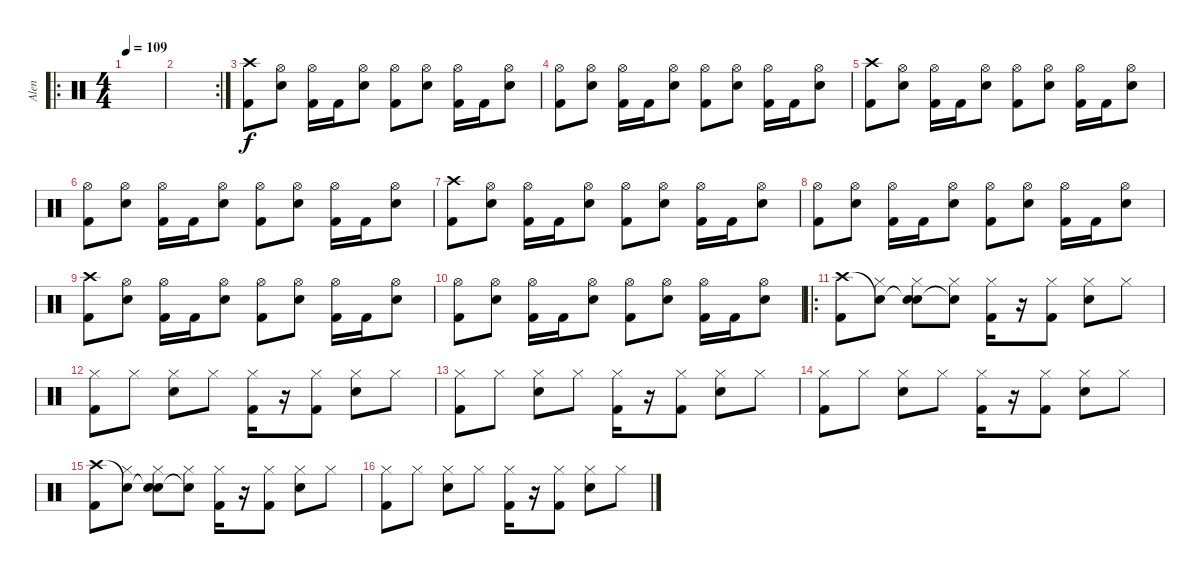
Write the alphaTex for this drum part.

\track ("Alen" "Alen") {instrument percussion}
\staff {score}
\articulation defaults
\ro
\ts (4 4)
\tempo 109
\clef neutral
\ks c
|
\rc 2
|
("Crash high (hit)" "Kick (hit) 2").8 ("Hi-Hat (open)" "Electric Snare (hit)").8 ("Hi-Hat (open)" "Kick (hit) 2").16 "Kick (hit) 2".16 ("Hi-Hat (open)" "Electric Snare (hit)").8 ("Hi-Hat (open)" "Kick (hit) 2").8 ("Hi-Hat (open)" "Electric Snare (hit)").8 ("Hi-Hat (open)" "Kick (hit) 2").16 "Kick (hit) 2".16 ("Hi-Hat (open)" "Electric Snare (hit)").8 |
("Hi-Hat (open)" "Kick (hit) 2").8 ("Hi-Hat (open)" "Electric Snare (hit)").8 ("Hi-Hat (open)" "Kick (hit) 2").16 "Kick (hit) 2".16 ("Hi-Hat (open)" "Electric Snare (hit)").8 ("Hi-Hat (open)" "Kick (hit) 2").8 ("Hi-Hat (open)" "Electric Snare (hit)").8 ("Hi-Hat (open)" "Kick (hit) 2").16 "Kick (hit) 2".16 ("Hi-Hat (open)" "Electric Snare (hit)").8 |
("Crash high (hit)" "Kick (hit) 2").8 ("Hi-Hat (open)" "Electric Snare (hit)").8 ("Hi-Hat (open)" "Kick (hit) 2").16 "Kick (hit) 2".16 ("Hi-Hat (open)" "Electric Snare (hit)").8 ("Hi-Hat (open)" "Kick (hit) 2").8 ("Hi-Hat (open)" "Electric Snare (hit)").8 ("Hi-Hat (open)" "Kick (hit) 2").16 "Kick (hit) 2".16 ("Hi-Hat (open)" "Electric Snare (hit)").8 |
("Hi-Hat (open)" "Kick (hit) 2").8 ("Hi-Hat (open)" "Electric Snare (hit)").8 ("Hi-Hat (open)" "Kick (hit) 2").16 "Kick (hit) 2".16 ("Hi-Hat (open)" "Electric Snare (hit)").8 ("Hi-Hat (open)" "Kick (hit) 2").8 ("Hi-Hat (open)" "Electric Snare (hit)").8 ("Hi-Hat (open)" "Kick (hit) 2").16 "Kick (hit) 2".16 ("Hi-Hat (open)" "Electric Snare (hit)").8 |
("Crash high (hit)" "Kick (hit) 2").8 ("Hi-Hat (open)" "Electric Snare (hit)").8 ("Hi-Hat (open)" "Kick (hit) 2").16 "Kick (hit) 2".16 ("Hi-Hat (open)" "Electric Snare (hit)").8 ("Hi-Hat (open)" "Kick (hit) 2").8 ("Hi-Hat (open)" "Electric Snare (hit)").8 ("Hi-Hat (open)" "Kick (hit) 2").16 "Kick (hit) 2".16 ("Hi-Hat (open)" "Electric Snare (hit)").8 |
("Hi-Hat (open)" "Kick (hit) 2").8 ("Hi-Hat (open)" "Electric Snare (hit)").8 ("Hi-Hat (open)" "Kick (hit) 2").16 "Kick (hit) 2".16 ("Hi-Hat (open)" "Electric Snare (hit)").8 ("Hi-Hat (open)" "Kick (hit) 2").8 ("Hi-Hat (open)" "Electric Snare (hit)").8 ("Hi-Hat (open)" "Kick (hit) 2").16 "Kick (hit) 2".16 ("Hi-Hat (open)" "Electric Snare (hit)").8 |
("Crash high (hit)" "Kick (hit) 2").8 ("Hi-Hat (open)" "Electric Snare (hit)").8 ("Hi-Hat (open)" "Kick (hit) 2").16 "Kick (hit) 2".16 ("Hi-Hat (open)" "Electric Snare (hit)").8 ("Hi-Hat (open)" "Kick (hit) 2").8 ("Hi-Hat (open)" "Electric Snare (hit)").8 ("Hi-Hat (open)" "Kick (hit) 2").16 "Kick (hit) 2".16 ("Hi-Hat (open)" "Electric Snare (hit)").8 |
("Hi-Hat (open)" "Kick (hit) 2").8 ("Hi-Hat (open)" "Electric Snare (hit)").8 ("Hi-Hat (open)" "Kick (hit) 2").16 "Kick (hit) 2".16 ("Hi-Hat (open)" "Electric Snare (hit)").8 ("Hi-Hat (open)" "Kick (hit) 2").8 ("Hi-Hat (open)" "Electric Snare (hit)").8 ("Hi-Hat (open)" "Kick (hit) 2").16 "Kick (hit) 2".16 ("Hi-Hat (open)" "Electric Snare (hit)").8 |
\ro
("Crash high (hit)" "Kick (hit) 2").8 ("Snare (hit)"{t} "Hi-Hat (closed)").8 ("Snare (hit)"{t} "Hi-Hat (closed)" "Electric Snare (hit)").8 ("Snare (hit)"{t} "Hi-Hat (closed)").8 ("Hi-Hat (closed)" "Kick (hit) 2").16 r.16 ("Hi-Hat (closed)" "Kick (hit) 2").8 ("Hi-Hat (closed)" "Electric Snare (hit)").8 "Hi-Hat (closed)".8 |
("Hi-Hat (closed)" "Kick (hit) 2").8 "Hi-Hat (closed)".8 ("Hi-Hat (closed)" "Electric Snare (hit)").8 "Hi-Hat (closed)".8 ("Hi-Hat (closed)" "Kick (hit) 2").16 r.16 ("Hi-Hat (closed)" "Kick (hit) 2").8 ("Hi-Hat (closed)" "Electric Snare (hit)").8 "Hi-Hat (closed)".8 |
("Hi-Hat (closed)" "Kick (hit) 2").8 "Hi-Hat (closed)".8 ("Hi-Hat (closed)" "Electric Snare (hit)").8 "Hi-Hat (closed)".8 ("Hi-Hat (closed)" "Kick (hit) 2").16 r.16 ("Hi-Hat (closed)" "Kick (hit) 2").8 ("Hi-Hat (closed)" "Electric Snare (hit)").8 "Hi-Hat (closed)".8 |
("Hi-Hat (closed)" "Kick (hit) 2").8 "Hi-Hat (closed)".8 ("Hi-Hat (closed)" "Electric Snare (hit)").8 "Hi-Hat (closed)".8 ("Hi-Hat (closed)" "Kick (hit) 2").16 r.16 ("Hi-Hat (closed)" "Kick (hit) 2").8 ("Hi-Hat (closed)" "Electric Snare (hit)").8 "Hi-Hat (closed)".8 |
("Crash high (hit)" "Kick (hit) 2").8 ("Snare (hit)"{t} "Hi-Hat (closed)").8 ("Snare (hit)"{t} "Hi-Hat (closed)" "Electric Snare (hit)").8 ("Snare (hit)"{t} "Hi-Hat (closed)").8 ("Hi-Hat (closed)" "Kick (hit) 2").16 r.16 ("Hi-Hat (closed)" "Kick (hit) 2").8 ("Hi-Hat (closed)" "Electric Snare (hit)").8 "Hi-Hat (closed)".8 |
("Hi-Hat (closed)" "Kick (hit) 2").8 "Hi-Hat (closed)".8 ("Hi-Hat (closed)" "Electric Snare (hit)").8 "Hi-Hat (closed)".8 ("Hi-Hat (closed)" "Kick (hit) 2").16 r.16 ("Hi-Hat (closed)" "Kick (hit) 2").8 ("Hi-Hat (closed)" "Electric Snare (hit)").8 "Hi-Hat (closed)".8
